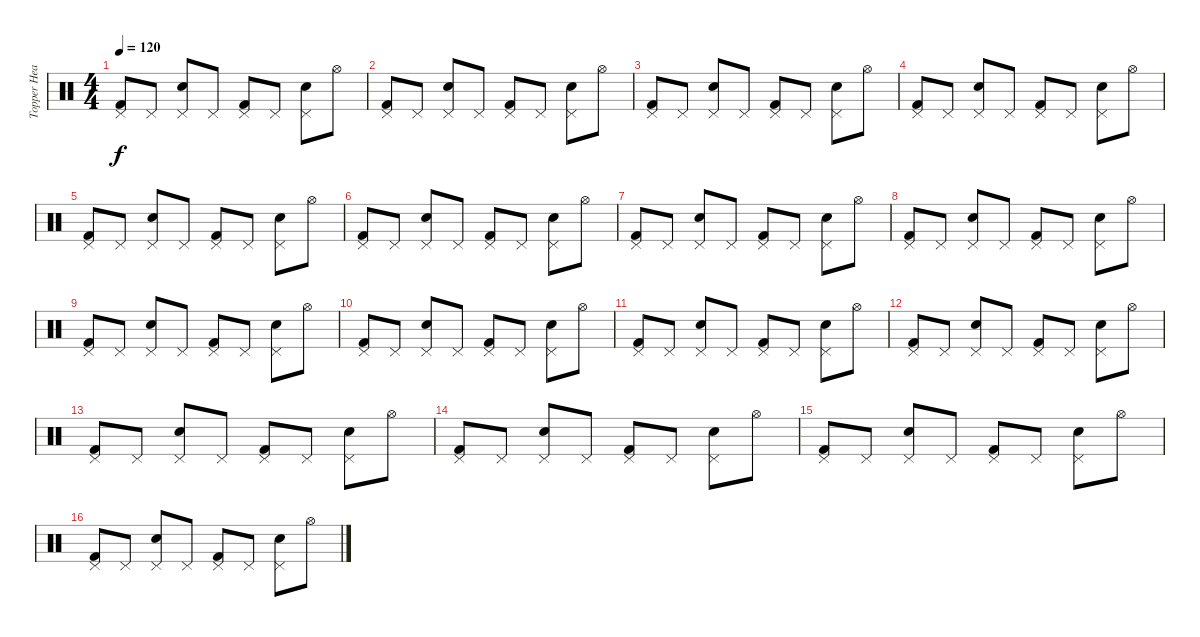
\track ("Topper Headon" "Topper Hea") {instrument percussion}
\staff {score}
\articulation defaults
\ts (4 4)
\tempo 120
\clef neutral
\ks c
("Pedal Hi-Hat (hit)" "Kick (hit) 2").8{dy f} "Pedal Hi-Hat (hit)".8 ("Pedal Hi-Hat (hit)" "Electric Snare (hit)").8 "Pedal Hi-Hat (hit)".8 ("Pedal Hi-Hat (hit)" "Kick (hit) 2").8 "Pedal Hi-Hat (hit)".8 ("Pedal Hi-Hat (hit)" "Electric Snare (hit)").8 "Hi-Hat (open)".8 |
("Pedal Hi-Hat (hit)" "Kick (hit) 2").8 "Pedal Hi-Hat (hit)".8 ("Pedal Hi-Hat (hit)" "Electric Snare (hit)").8 "Pedal Hi-Hat (hit)".8 ("Pedal Hi-Hat (hit)" "Kick (hit) 2").8 "Pedal Hi-Hat (hit)".8 ("Pedal Hi-Hat (hit)" "Electric Snare (hit)").8 "Hi-Hat (open)".8 |
("Pedal Hi-Hat (hit)" "Kick (hit) 2").8 "Pedal Hi-Hat (hit)".8 ("Pedal Hi-Hat (hit)" "Electric Snare (hit)").8 "Pedal Hi-Hat (hit)".8 ("Pedal Hi-Hat (hit)" "Kick (hit) 2").8 "Pedal Hi-Hat (hit)".8 ("Pedal Hi-Hat (hit)" "Electric Snare (hit)").8 "Hi-Hat (open)".8 |
("Pedal Hi-Hat (hit)" "Kick (hit) 2").8 "Pedal Hi-Hat (hit)".8 ("Pedal Hi-Hat (hit)" "Electric Snare (hit)").8 "Pedal Hi-Hat (hit)".8 ("Pedal Hi-Hat (hit)" "Kick (hit) 2").8 "Pedal Hi-Hat (hit)".8 ("Pedal Hi-Hat (hit)" "Electric Snare (hit)").8 "Hi-Hat (open)".8 |
("Pedal Hi-Hat (hit)" "Kick (hit) 2").8 "Pedal Hi-Hat (hit)".8 ("Pedal Hi-Hat (hit)" "Electric Snare (hit)").8 "Pedal Hi-Hat (hit)".8 ("Pedal Hi-Hat (hit)" "Kick (hit) 2").8 "Pedal Hi-Hat (hit)".8 ("Pedal Hi-Hat (hit)" "Electric Snare (hit)").8 "Hi-Hat (open)".8 |
("Pedal Hi-Hat (hit)" "Kick (hit) 2").8 "Pedal Hi-Hat (hit)".8 ("Pedal Hi-Hat (hit)" "Electric Snare (hit)").8 "Pedal Hi-Hat (hit)".8 ("Pedal Hi-Hat (hit)" "Kick (hit) 2").8 "Pedal Hi-Hat (hit)".8 ("Pedal Hi-Hat (hit)" "Electric Snare (hit)").8 "Hi-Hat (open)".8 |
("Pedal Hi-Hat (hit)" "Kick (hit) 2").8 "Pedal Hi-Hat (hit)".8 ("Pedal Hi-Hat (hit)" "Electric Snare (hit)").8 "Pedal Hi-Hat (hit)".8 ("Pedal Hi-Hat (hit)" "Kick (hit) 2").8 "Pedal Hi-Hat (hit)".8 ("Pedal Hi-Hat (hit)" "Electric Snare (hit)").8 "Hi-Hat (open)".8 |
("Pedal Hi-Hat (hit)" "Kick (hit) 2").8 "Pedal Hi-Hat (hit)".8 ("Pedal Hi-Hat (hit)" "Electric Snare (hit)").8 "Pedal Hi-Hat (hit)".8 ("Pedal Hi-Hat (hit)" "Kick (hit) 2").8 "Pedal Hi-Hat (hit)".8 ("Pedal Hi-Hat (hit)" "Electric Snare (hit)").8 "Hi-Hat (open)".8 |
("Pedal Hi-Hat (hit)" "Kick (hit) 2").8 "Pedal Hi-Hat (hit)".8 ("Pedal Hi-Hat (hit)" "Electric Snare (hit)").8 "Pedal Hi-Hat (hit)".8 ("Pedal Hi-Hat (hit)" "Kick (hit) 2").8 "Pedal Hi-Hat (hit)".8 ("Pedal Hi-Hat (hit)" "Electric Snare (hit)").8 "Hi-Hat (open)".8 |
("Pedal Hi-Hat (hit)" "Kick (hit) 2").8 "Pedal Hi-Hat (hit)".8 ("Pedal Hi-Hat (hit)" "Electric Snare (hit)").8 "Pedal Hi-Hat (hit)".8 ("Pedal Hi-Hat (hit)" "Kick (hit) 2").8 "Pedal Hi-Hat (hit)".8 ("Pedal Hi-Hat (hit)" "Electric Snare (hit)").8 "Hi-Hat (open)".8 |
("Pedal Hi-Hat (hit)" "Kick (hit) 2").8 "Pedal Hi-Hat (hit)".8 ("Pedal Hi-Hat (hit)" "Electric Snare (hit)").8 "Pedal Hi-Hat (hit)".8 ("Pedal Hi-Hat (hit)" "Kick (hit) 2").8 "Pedal Hi-Hat (hit)".8 ("Pedal Hi-Hat (hit)" "Electric Snare (hit)").8 "Hi-Hat (open)".8 |
("Pedal Hi-Hat (hit)" "Kick (hit) 2").8 "Pedal Hi-Hat (hit)".8 ("Pedal Hi-Hat (hit)" "Electric Snare (hit)").8 "Pedal Hi-Hat (hit)".8 ("Pedal Hi-Hat (hit)" "Kick (hit) 2").8 "Pedal Hi-Hat (hit)".8 ("Pedal Hi-Hat (hit)" "Electric Snare (hit)").8 "Hi-Hat (open)".8 |
("Pedal Hi-Hat (hit)" "Kick (hit) 2").8 "Pedal Hi-Hat (hit)".8 ("Pedal Hi-Hat (hit)" "Electric Snare (hit)").8 "Pedal Hi-Hat (hit)".8 ("Pedal Hi-Hat (hit)" "Kick (hit) 2").8 "Pedal Hi-Hat (hit)".8 ("Pedal Hi-Hat (hit)" "Electric Snare (hit)").8 "Hi-Hat (open)".8 |
("Pedal Hi-Hat (hit)" "Kick (hit) 2").8 "Pedal Hi-Hat (hit)".8 ("Pedal Hi-Hat (hit)" "Electric Snare (hit)").8 "Pedal Hi-Hat (hit)".8 ("Pedal Hi-Hat (hit)" "Kick (hit) 2").8 "Pedal Hi-Hat (hit)".8 ("Pedal Hi-Hat (hit)" "Electric Snare (hit)").8 "Hi-Hat (open)".8 |
("Pedal Hi-Hat (hit)" "Kick (hit) 2").8 "Pedal Hi-Hat (hit)".8 ("Pedal Hi-Hat (hit)" "Electric Snare (hit)").8 "Pedal Hi-Hat (hit)".8 ("Pedal Hi-Hat (hit)" "Kick (hit) 2").8 "Pedal Hi-Hat (hit)".8 ("Pedal Hi-Hat (hit)" "Electric Snare (hit)").8 "Hi-Hat (open)".8 |
("Pedal Hi-Hat (hit)" "Kick (hit) 2").8 "Pedal Hi-Hat (hit)".8 ("Pedal Hi-Hat (hit)" "Electric Snare (hit)").8 "Pedal Hi-Hat (hit)".8 ("Pedal Hi-Hat (hit)" "Kick (hit) 2").8 "Pedal Hi-Hat (hit)".8 ("Pedal Hi-Hat (hit)" "Electric Snare (hit)").8 "Hi-Hat (open)".8
